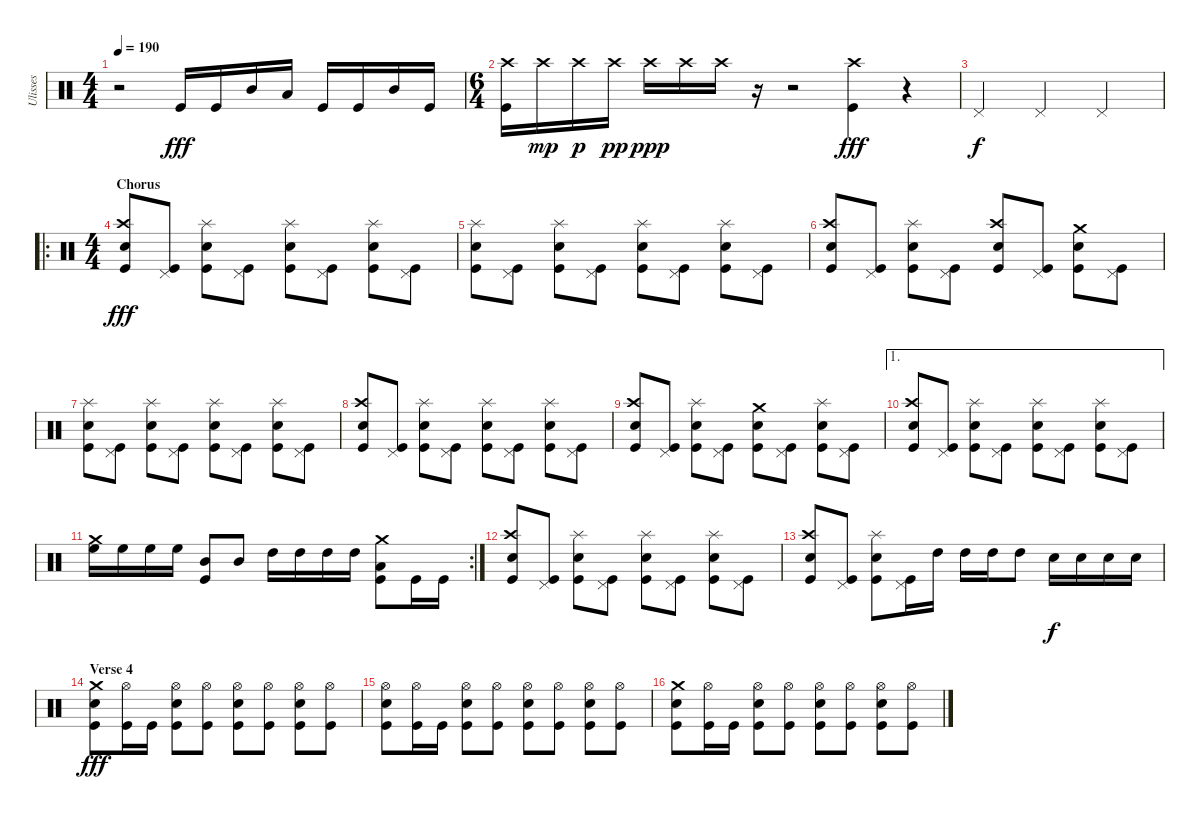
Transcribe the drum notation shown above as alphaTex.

\track ("Ulisses" "Ulisses") {instrument percussion}
\staff {score}
\articulation defaults
\ts (4 4)
\tempo 190
\clef neutral
\ks c
r.2{dy ppp} "Kick (hit)".16{dy fff} "Kick (hit)".16 "Mid Tom (hit)".16 "Low Tom (hit)".16 "Kick (hit)".16 "Kick (hit)".16 "Mid Tom (hit)".16 "Kick (hit)".16 |
\ts (6 4)
("Crash high (hit)" "Kick (hit)").16 "Crash high (hit)".16{dy mp} "Crash high (hit)".16{dy p} "Crash high (hit)".16{dy pp} "Crash high (hit)".16{dy ppp} "Crash high (hit)".16 "Crash high (hit)".16 r.16 r.2 ("Crash high (hit)" "Kick (hit)").4{dy fff} r.4{volume 0} |
"Pedal Hi-Hat (hit)".2{dy f volume 16} "Pedal Hi-Hat (hit)".2 "Pedal Hi-Hat (hit)".2 |
\ro
\ts (4 4)
\section ("" "Chorus")
("Crash high (hit)" "Electric Snare (hit)" "Kick (hit)").8{dy fff} ("Pedal Hi-Hat (hit)" "Kick (hit)").8 ("Splash (hit)" "Electric Snare (hit)" "Kick (hit)").8 ("Pedal Hi-Hat (hit)" "Kick (hit)").8 ("Splash (hit)" "Electric Snare (hit)" "Kick (hit)").8 ("Pedal Hi-Hat (hit)" "Kick (hit)").8 ("Splash (hit)" "Electric Snare (hit)" "Kick (hit)").8 ("Pedal Hi-Hat (hit)" "Kick (hit)").8 |
("Splash (hit)" "Electric Snare (hit)" "Kick (hit)").8 ("Pedal Hi-Hat (hit)" "Kick (hit)").8 ("Splash (hit)" "Electric Snare (hit)" "Kick (hit)").8 ("Pedal Hi-Hat (hit)" "Kick (hit)").8 ("Splash (hit)" "Electric Snare (hit)" "Kick (hit)").8 ("Pedal Hi-Hat (hit)" "Kick (hit)").8 ("Splash (hit)" "Electric Snare (hit)" "Kick (hit)").8 ("Pedal Hi-Hat (hit)" "Kick (hit)").8 |
("Crash high (hit)" "Electric Snare (hit)" "Kick (hit)").8 ("Pedal Hi-Hat (hit)" "Kick (hit)").8 ("Splash (hit)" "Electric Snare (hit)" "Kick (hit)").8 ("Pedal Hi-Hat (hit)" "Kick (hit)").8 ("Crash high (hit)" "Electric Snare (hit)" "Kick (hit)").8 ("Pedal Hi-Hat (hit)" "Kick (hit)").8 ("Crash medium (hit)" "Electric Snare (hit)" "Kick (hit)").8 ("Pedal Hi-Hat (hit)" "Kick (hit)").8 |
("Splash (hit)" "Electric Snare (hit)" "Kick (hit)").8 ("Pedal Hi-Hat (hit)" "Kick (hit)").8 ("Splash (hit)" "Electric Snare (hit)" "Kick (hit)").8 ("Pedal Hi-Hat (hit)" "Kick (hit)").8 ("Splash (hit)" "Electric Snare (hit)" "Kick (hit)").8 ("Pedal Hi-Hat (hit)" "Kick (hit)").8 ("Splash (hit)" "Electric Snare (hit)" "Kick (hit)").8 ("Pedal Hi-Hat (hit)" "Kick (hit)").8 |
("Crash high (hit)" "Electric Snare (hit)" "Kick (hit)").8 ("Pedal Hi-Hat (hit)" "Kick (hit)").8 ("Splash (hit)" "Electric Snare (hit)" "Kick (hit)").8 ("Pedal Hi-Hat (hit)" "Kick (hit)").8 ("Splash (hit)" "Electric Snare (hit)" "Kick (hit)").8 ("Pedal Hi-Hat (hit)" "Kick (hit)").8 ("Splash (hit)" "Electric Snare (hit)" "Kick (hit)").8 ("Pedal Hi-Hat (hit)" "Kick (hit)").8 |
("Crash high (hit)" "Electric Snare (hit)" "Kick (hit)").8 ("Pedal Hi-Hat (hit)" "Kick (hit)").8 ("Splash (hit)" "Electric Snare (hit)" "Kick (hit)").8 ("Pedal Hi-Hat (hit)" "Kick (hit)").8 ("Crash medium (hit)" "Electric Snare (hit)" "Kick (hit)").8 ("Pedal Hi-Hat (hit)" "Kick (hit)").8 ("Splash (hit)" "Electric Snare (hit)" "Kick (hit)").8 ("Pedal Hi-Hat (hit)" "Kick (hit)").8 |
\ae 1
("Crash high (hit)" "Electric Snare (hit)" "Kick (hit)").8 ("Pedal Hi-Hat (hit)" "Kick (hit)").8 ("Splash (hit)" "Electric Snare (hit)" "Kick (hit)").8 ("Pedal Hi-Hat (hit)" "Kick (hit)").8 ("Splash (hit)" "Electric Snare (hit)" "Kick (hit)").8 ("Pedal Hi-Hat (hit)" "Kick (hit)").8 ("Splash (hit)" "Electric Snare (hit)" "Kick (hit)").8 ("Pedal Hi-Hat (hit)" "Kick (hit)").8 |
\rc 2
("Crash medium (hit)" "High Floor Tom (hit)").16 "High Floor Tom (hit)".16 "High Floor Tom (hit)".16 "High Floor Tom (hit)".16 ("Mid Tom (hit)" "Kick (hit)").8 "Mid Tom (hit)".8 "High Tom (hit)".16 "High Tom (hit)".16 "High Tom (hit)".16 "High Tom (hit)".16 ("Crash medium (hit)" "Low Tom (hit)" "Kick (hit)").8 "Kick (hit)".16 "Kick (hit)".16 |
("Crash high (hit)" "Electric Snare (hit)" "Kick (hit)").8 ("Pedal Hi-Hat (hit)" "Kick (hit)").8 ("Splash (hit)" "Electric Snare (hit)" "Kick (hit)").8 ("Pedal Hi-Hat (hit)" "Kick (hit)").8 ("Splash (hit)" "Electric Snare (hit)" "Kick (hit)").8 ("Pedal Hi-Hat (hit)" "Kick (hit)").8 ("Splash (hit)" "Electric Snare (hit)" "Kick (hit)").8 ("Pedal Hi-Hat (hit)" "Kick (hit)").8 |
("Crash high (hit)" "Electric Snare (hit)" "Kick (hit)").8 ("Pedal Hi-Hat (hit)" "Kick (hit)").8 ("Splash (hit)" "Electric Snare (hit)" "Kick (hit)").8 ("Pedal Hi-Hat (hit)" "Kick (hit)").16 "High Tom (hit)".16 "High Tom (hit)".16 "High Tom (hit)".16 "High Tom (hit)".8 "Electric Snare (hit)".16{dy f} "Electric Snare (hit)".16 "Electric Snare (hit)".16 "Electric Snare (hit)".16 |
\section ("" "Verse 4")
("Crash medium (hit)" "Electric Snare (hit)" "Kick (hit)").8{dy fff} ("Hi-Hat (open)" "Kick (hit)").16 "Kick (hit)".16 ("Hi-Hat (open)" "Electric Snare (hit)" "Kick (hit)").8 ("Hi-Hat (open)" "Kick (hit)").8 ("Hi-Hat (open)" "Electric Snare (hit)" "Kick (hit)").8 ("Hi-Hat (open)" "Kick (hit)").8 ("Hi-Hat (open)" "Electric Snare (hit)" "Kick (hit)").8 ("Hi-Hat (open)" "Kick (hit)").8 |
("Hi-Hat (open)" "Electric Snare (hit)" "Kick (hit)").8 ("Hi-Hat (open)" "Kick (hit)").16 "Kick (hit)".16 ("Hi-Hat (open)" "Electric Snare (hit)" "Kick (hit)").8 ("Hi-Hat (open)" "Kick (hit)").8 ("Hi-Hat (open)" "Electric Snare (hit)" "Kick (hit)").8 ("Hi-Hat (open)" "Kick (hit)").8 ("Hi-Hat (open)" "Electric Snare (hit)" "Kick (hit)").8 ("Hi-Hat (open)" "Kick (hit)").8 |
("Crash medium (hit)" "Electric Snare (hit)" "Kick (hit)").8 ("Hi-Hat (open)" "Kick (hit)").16 "Kick (hit)".16 ("Hi-Hat (open)" "Electric Snare (hit)" "Kick (hit)").8 ("Hi-Hat (open)" "Kick (hit)").8 ("Hi-Hat (open)" "Electric Snare (hit)" "Kick (hit)").8 ("Hi-Hat (open)" "Kick (hit)").8 ("Hi-Hat (open)" "Electric Snare (hit)" "Kick (hit)").8 ("Hi-Hat (open)" "Kick (hit)").8
